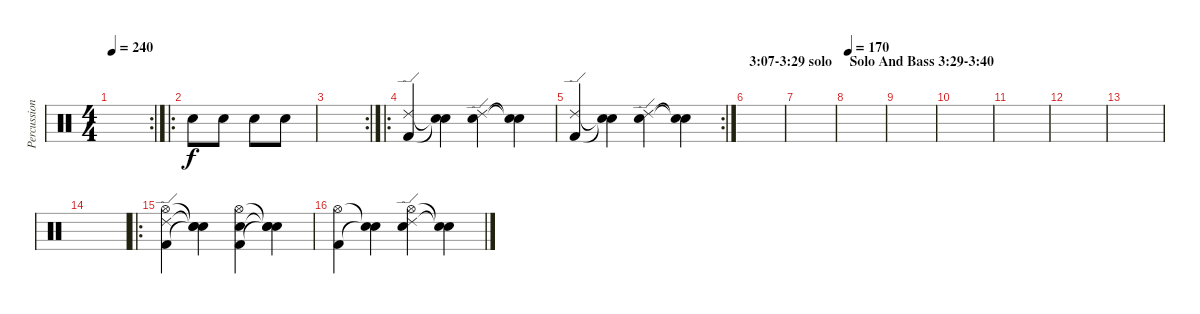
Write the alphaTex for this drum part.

\track ("Percussion" "Percussion") {instrument percussion}
\staff {score}
\articulation defaults
\rc 2
\ts (4 4)
\tempo 240
\clef neutral
\ks c
|
\ro "Snare (hit) 2".8 "Snare (hit) 2".8 "Snare (hit) 2".8 "Snare (hit) 2".8
|
\rc 2
|
\ro
("Ride (edge) 2" "Kick (hit) 2").4 ("Electric Snare (hit)"{t} "Snare (hit)"{t}).4 ("Ride (edge) 2" "Electric Snare (hit)").4 ("Electric Snare (hit)"{t} "Snare (hit)"{t}).4 |
\rc 2
("Ride (edge) 2" "Kick (hit) 2").4 ("Electric Snare (hit)"{t} "Snare (hit)"{t}).4 ("Ride (edge) 2" "Electric Snare (hit)").4 ("Electric Snare (hit)"{t} "Snare (hit)"{t}).4 |
\section ("" "3:07-3:29 solo")
|
|
\section ("" "Solo And Bass 3:29-3:40")
\tempo 170
|
|
|
|
|
|
|
\ro
("Ride (edge) 2" "Hi-Hat (open)" "Kick (hit) 2").4 ("Snare (hit)"{t} "Snare (hit)"{t} "Snare (hit)"{t}).4 ("Electric Snare (hit)" "Hi-Hat (open)" "Kick (hit) 2").4 ("Snare (hit)"{t} "Snare (hit)"{t} "Snare (hit)"{t}).4 |
("Hi-Hat (open)" "Kick (hit) 2").4 ("Electric Snare (hit)"{t} "Snare (hit)"{t}).4 ("Hi-Hat (open)" "Ride (edge) 2" "Electric Snare (hit)").4 ("Electric Snare (hit)"{t} "Snare (hit)"{t}).4
